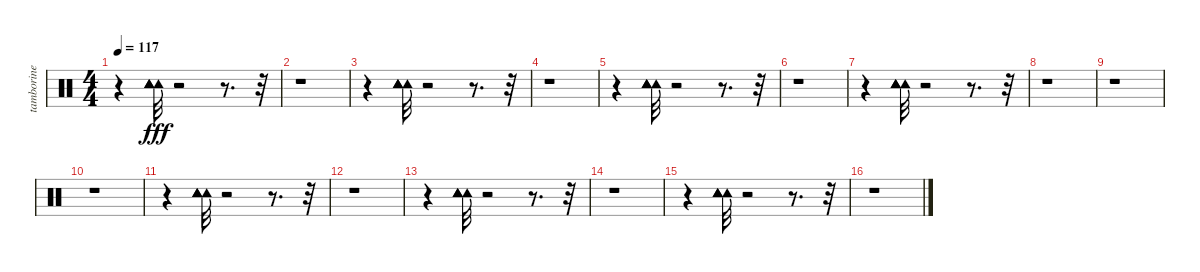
\track ("tamborine" "tamborine") {instrument percussion}
\staff {score}
\articulation defaults
\ts (4 4)
\tempo 117
\clef neutral
\ks c
r.4{dy fff} ("Tambourine (hit)" "Tambourine (hit)" "Tambourine (hit)" "Tambourine (hit)").32 r.2 r.8{d} r.32 |
r.1 |
r.4 ("Tambourine (hit)" "Tambourine (hit)" "Tambourine (hit)" "Tambourine (hit)").32 r.2 r.8{d} r.32 |
r.1 |
r.4 ("Tambourine (hit)" "Tambourine (hit)" "Tambourine (hit)" "Tambourine (hit)").32 r.2 r.8{d} r.32 |
r.1 |
r.4 ("Tambourine (hit)" "Tambourine (hit)" "Tambourine (hit)" "Tambourine (hit)").32 r.2 r.8{d} r.32 |
r.1 |
r.1 |
r.1 |
r.4 ("Tambourine (hit)" "Tambourine (hit)" "Tambourine (hit)" "Tambourine (hit)").32 r.2 r.8{d} r.32 |
r.1 |
r.4 ("Tambourine (hit)" "Tambourine (hit)" "Tambourine (hit)" "Tambourine (hit)").32 r.2 r.8{d} r.32 |
r.1 |
r.4 ("Tambourine (hit)" "Tambourine (hit)" "Tambourine (hit)" "Tambourine (hit)").32 r.2 r.8{d} r.32 |
r.1
